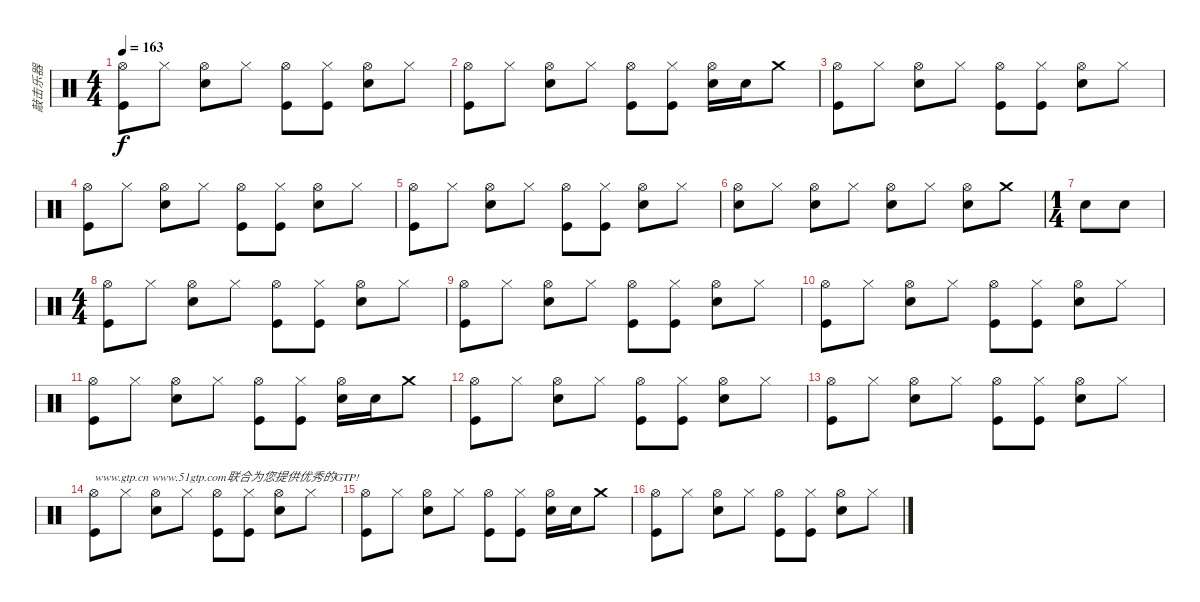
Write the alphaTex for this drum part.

\track ("敲击乐器" "敲击乐器") {instrument percussion}
\staff {score}
\articulation defaults
\ts (4 4)
\tempo 163
\clef neutral
\ks c
("Hi-Hat (open)" "Kick (hit)").8{dy f} "Hi-Hat (closed)".8 ("Hi-Hat (open)" "Snare (hit) 2").8 "Hi-Hat (closed)".8 ("Hi-Hat (open)" "Kick (hit)").8 ("Hi-Hat (closed)" "Kick (hit)").8 ("Hi-Hat (open)" "Snare (hit) 2").8 "Hi-Hat (closed)".8 |
("Hi-Hat (open)" "Kick (hit)").8 "Hi-Hat (closed)".8 ("Hi-Hat (open)" "Snare (hit) 2").8 "Hi-Hat (closed)".8 ("Hi-Hat (open)" "Kick (hit)").8 ("Hi-Hat (closed)" "Kick (hit)").8 ("Hi-Hat (open)" "Snare (hit) 2").16 "Snare (hit) 2".16 "Crash medium (hit)".8 |
("Hi-Hat (open)" "Kick (hit)").8 "Hi-Hat (closed)".8 ("Hi-Hat (open)" "Snare (hit) 2").8 "Hi-Hat (closed)".8 ("Hi-Hat (open)" "Kick (hit)").8 ("Hi-Hat (closed)" "Kick (hit)").8 ("Hi-Hat (open)" "Snare (hit) 2").8 "Hi-Hat (closed)".8 |
("Hi-Hat (open)" "Kick (hit)").8 "Hi-Hat (closed)".8 ("Hi-Hat (open)" "Snare (hit) 2").8 "Hi-Hat (closed)".8 ("Hi-Hat (open)" "Kick (hit)").8 ("Hi-Hat (closed)" "Kick (hit)").8 ("Hi-Hat (open)" "Snare (hit) 2").8 "Hi-Hat (closed)".8 |
("Hi-Hat (open)" "Kick (hit)").8 "Hi-Hat (closed)".8 ("Hi-Hat (open)" "Snare (hit) 2").8 "Hi-Hat (closed)".8 ("Hi-Hat (open)" "Kick (hit)").8 ("Hi-Hat (closed)" "Kick (hit)").8 ("Hi-Hat (open)" "Snare (hit) 2").8 "Hi-Hat (closed)".8 |
("Hi-Hat (open)" "Snare (hit) 2").8 "Hi-Hat (closed)".8 ("Hi-Hat (open)" "Snare (hit) 2").8 "Hi-Hat (closed)".8 ("Hi-Hat (open)" "Snare (hit) 2").8 "Hi-Hat (closed)".8 ("Hi-Hat (open)" "Snare (hit) 2").8 "Crash medium (hit)".8 |
\ts (1 4)
"Snare (hit) 2".8 "Snare (hit) 2".8 |
\ts (4 4)
("Hi-Hat (open)" "Kick (hit)").8 "Hi-Hat (closed)".8 ("Hi-Hat (open)" "Snare (hit) 2").8 "Hi-Hat (closed)".8 ("Hi-Hat (open)" "Kick (hit)").8 ("Hi-Hat (closed)" "Kick (hit)").8 ("Hi-Hat (open)" "Snare (hit) 2").8 "Hi-Hat (closed)".8 |
("Hi-Hat (open)" "Kick (hit)").8 "Hi-Hat (closed)".8 ("Hi-Hat (open)" "Snare (hit) 2").8 "Hi-Hat (closed)".8 ("Hi-Hat (open)" "Kick (hit)").8 ("Hi-Hat (closed)" "Kick (hit)").8 ("Hi-Hat (open)" "Snare (hit) 2").8 "Hi-Hat (closed)".8 |
("Hi-Hat (open)" "Kick (hit)").8 "Hi-Hat (closed)".8 ("Hi-Hat (open)" "Snare (hit) 2").8 "Hi-Hat (closed)".8 ("Hi-Hat (open)" "Kick (hit)").8 ("Hi-Hat (closed)" "Kick (hit)").8 ("Hi-Hat (open)" "Snare (hit) 2").8 "Hi-Hat (closed)".8 |
("Hi-Hat (open)" "Kick (hit)").8 "Hi-Hat (closed)".8 ("Hi-Hat (open)" "Snare (hit) 2").8 "Hi-Hat (closed)".8 ("Hi-Hat (open)" "Kick (hit)").8 ("Hi-Hat (closed)" "Kick (hit)").8 ("Hi-Hat (open)" "Snare (hit) 2").16 "Snare (hit) 2".16 "Crash medium (hit)".8 |
("Hi-Hat (open)" "Kick (hit)").8 "Hi-Hat (closed)".8 ("Hi-Hat (open)" "Snare (hit) 2").8 "Hi-Hat (closed)".8 ("Hi-Hat (open)" "Kick (hit)").8 ("Hi-Hat (closed)" "Kick (hit)").8 ("Hi-Hat (open)" "Snare (hit) 2").8 "Hi-Hat (closed)".8 |
("Hi-Hat (open)" "Kick (hit)").8 "Hi-Hat (closed)".8 ("Hi-Hat (open)" "Snare (hit) 2").8 "Hi-Hat (closed)".8 ("Hi-Hat (open)" "Kick (hit)").8 ("Hi-Hat (closed)" "Kick (hit)").8 ("Hi-Hat (open)" "Snare (hit) 2").8 "Hi-Hat (closed)".8 |
("Hi-Hat (open)" "Kick (hit)").8{txt "www.gtp.cn www.51gtp.com联合为您提供优秀的GTP!"} "Hi-Hat (closed)".8 ("Hi-Hat (open)" "Snare (hit) 2").8 "Hi-Hat (closed)".8 ("Hi-Hat (open)" "Kick (hit)").8 ("Hi-Hat (closed)" "Kick (hit)").8 ("Hi-Hat (open)" "Snare (hit) 2").8 "Hi-Hat (closed)".8 |
("Hi-Hat (open)" "Kick (hit)").8 "Hi-Hat (closed)".8 ("Hi-Hat (open)" "Snare (hit) 2").8 "Hi-Hat (closed)".8 ("Hi-Hat (open)" "Kick (hit)").8 ("Hi-Hat (closed)" "Kick (hit)").8 ("Hi-Hat (open)" "Snare (hit) 2").16 "Snare (hit) 2".16 "Crash medium (hit)".8 |
("Hi-Hat (open)" "Kick (hit)").8 "Hi-Hat (closed)".8 ("Hi-Hat (open)" "Snare (hit) 2").8 "Hi-Hat (closed)".8 ("Hi-Hat (open)" "Kick (hit)").8 ("Hi-Hat (closed)" "Kick (hit)").8 ("Hi-Hat (open)" "Snare (hit) 2").8 "Hi-Hat (closed)".8
